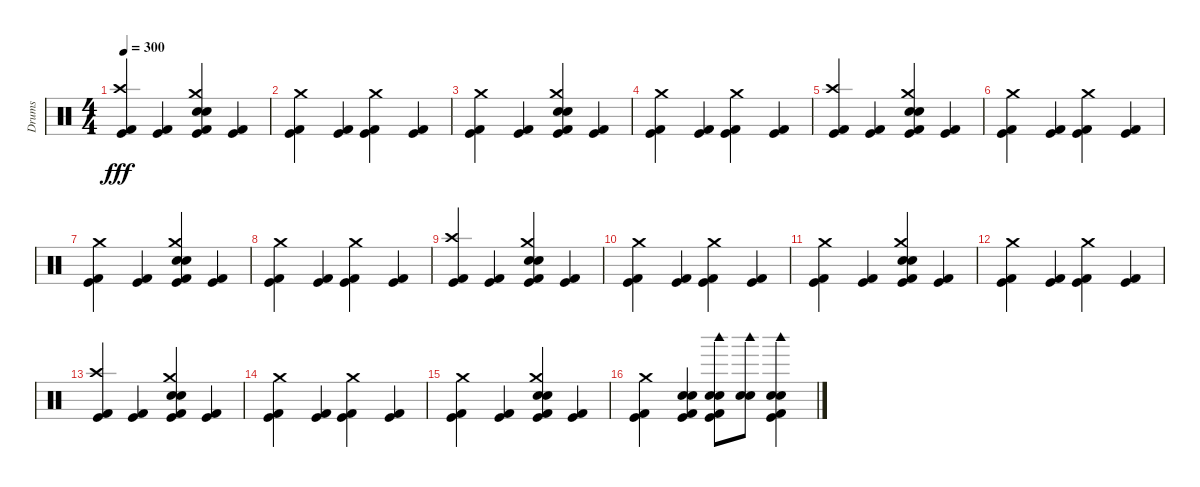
\track ("Drums" "Drums") {instrument percussion}
\staff {score}
\articulation defaults
\ts (4 4)
\tempo 300
\clef neutral
\ks c
("Kick (hit) 2" "Crash high (hit)" "Kick (hit)").4{dy fff} ("Kick (hit) 2" "Kick (hit)").4 ("Kick (hit) 2" "Crash medium (hit)" "Electric Snare (hit)" "Snare (hit) 2" "Kick (hit)").4 ("Kick (hit) 2" "Kick (hit)").4 |
("Kick (hit) 2" "Kick (hit)" "Crash medium (hit)").4 ("Kick (hit) 2" "Kick (hit)").4 ("Kick (hit) 2" "Kick (hit)" "Crash medium (hit)").4 ("Kick (hit) 2" "Kick (hit)").4 |
("Kick (hit) 2" "Crash medium (hit)" "Kick (hit)").4 ("Kick (hit) 2" "Kick (hit)").4 ("Kick (hit) 2" "Electric Snare (hit)" "Snare (hit) 2" "Crash medium (hit)" "Kick (hit)").4 ("Kick (hit) 2" "Kick (hit)").4 |
("Kick (hit) 2" "Kick (hit)" "Crash medium (hit)").4 ("Kick (hit) 2" "Kick (hit)").4 ("Kick (hit) 2" "Kick (hit)" "Crash medium (hit)").4 ("Kick (hit) 2" "Kick (hit)").4 |
("Kick (hit) 2" "Crash high (hit)" "Kick (hit)").4 ("Kick (hit) 2" "Kick (hit)").4 ("Kick (hit) 2" "Electric Snare (hit)" "Crash medium (hit)" "Snare (hit) 2" "Kick (hit)").4 ("Kick (hit) 2" "Kick (hit)").4 |
("Kick (hit) 2" "Crash medium (hit)" "Kick (hit)").4 ("Kick (hit) 2" "Kick (hit)").4 ("Kick (hit) 2" "Crash medium (hit)" "Kick (hit)").4 ("Kick (hit) 2" "Kick (hit)").4 |
("Kick (hit) 2" "Kick (hit)" "Crash medium (hit)").4 ("Kick (hit) 2" "Kick (hit)").4 ("Kick (hit) 2" "Snare (hit) 2" "Electric Snare (hit)" "Crash medium (hit)" "Kick (hit)").4 ("Kick (hit) 2" "Kick (hit)").4 |
("Kick (hit) 2" "Crash medium (hit)" "Kick (hit)").4 ("Kick (hit) 2" "Kick (hit)").4 ("Kick (hit) 2" "Kick (hit)" "Crash medium (hit)").4 ("Kick (hit) 2" "Kick (hit)").4 |
("Kick (hit) 2" "Crash high (hit)" "Kick (hit)").4 ("Kick (hit) 2" "Kick (hit)").4 ("Kick (hit) 2" "Crash medium (hit)" "Electric Snare (hit)" "Snare (hit) 2" "Kick (hit)").4 ("Kick (hit) 2" "Kick (hit)").4 |
("Kick (hit) 2" "Kick (hit)" "Crash medium (hit)").4 ("Kick (hit) 2" "Kick (hit)").4 ("Kick (hit) 2" "Kick (hit)" "Crash medium (hit)").4 ("Kick (hit) 2" "Kick (hit)").4 |
("Kick (hit) 2" "Crash medium (hit)" "Kick (hit)").4 ("Kick (hit) 2" "Kick (hit)").4 ("Kick (hit) 2" "Electric Snare (hit)" "Snare (hit) 2" "Crash medium (hit)" "Kick (hit)").4 ("Kick (hit) 2" "Kick (hit)").4 |
("Kick (hit) 2" "Kick (hit)" "Crash medium (hit)").4 ("Kick (hit) 2" "Kick (hit)").4 ("Kick (hit) 2" "Kick (hit)" "Crash medium (hit)").4 ("Kick (hit) 2" "Kick (hit)").4 |
("Kick (hit) 2" "Crash high (hit)" "Kick (hit)").4 ("Kick (hit) 2" "Kick (hit)").4 ("Kick (hit) 2" "Electric Snare (hit)" "Crash medium (hit)" "Snare (hit) 2" "Kick (hit)").4 ("Kick (hit) 2" "Kick (hit)").4 |
("Kick (hit) 2" "Crash medium (hit)" "Kick (hit)").4 ("Kick (hit) 2" "Kick (hit)").4 ("Kick (hit) 2" "Crash medium (hit)" "Kick (hit)").4 ("Kick (hit) 2" "Kick (hit)").4 |
("Kick (hit) 2" "Kick (hit)" "Crash medium (hit)").4 ("Kick (hit) 2" "Kick (hit)").4 ("Kick (hit) 2" "Snare (hit) 2" "Electric Snare (hit)" "Crash medium (hit)" "Kick (hit)").4 ("Kick (hit) 2" "Kick (hit)").4 |
("Kick (hit) 2" "Kick (hit)" "Crash medium (hit)").4 ("Kick (hit) 2" "Electric Snare (hit)" "Snare (hit) 2" "Kick (hit)").4 ("Kick (hit) 2" "Woodblock high (hit)" "Snare (hit) 2" "Electric Snare (hit)" "Kick (hit)").8 ("Woodblock high (hit)" "Snare (hit) 2" "Electric Snare (hit)").8 ("Kick (hit) 2" "Woodblock high (hit)" "Snare (hit) 2" "Electric Snare (hit)" "Kick (hit)").4
